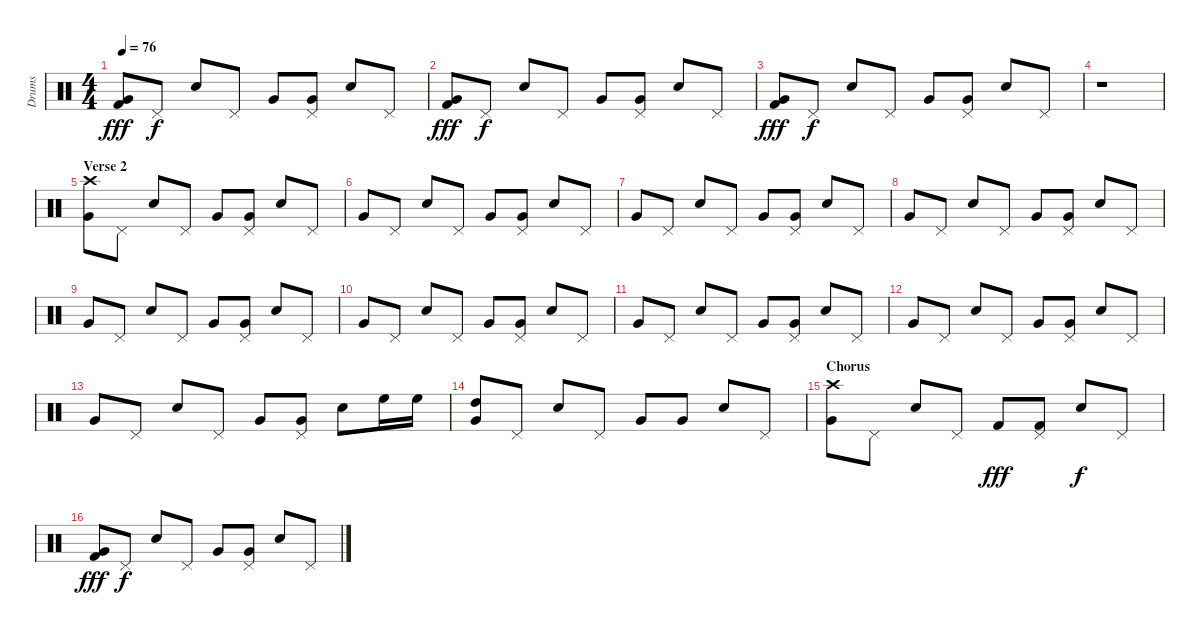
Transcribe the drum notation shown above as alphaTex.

\track ("Drums" "Drums") {instrument percussion}
\staff {score}
\articulation defaults
\ts (4 4)
\tempo 76
\clef neutral
\ks c
("Kick (hit) 2" "Very Low Tom (hit)").8{dy fff} "Pedal Hi-Hat (hit)".8{dy f} "Electric Snare (hit)".8 "Pedal Hi-Hat (hit)".8 "Very Low Tom (hit)".8 ("Very Low Tom (hit)" "Pedal Hi-Hat (hit)").8 "Electric Snare (hit)".8 "Pedal Hi-Hat (hit)".8 |
("Kick (hit) 2" "Very Low Tom (hit)").8{dy fff} "Pedal Hi-Hat (hit)".8{dy f} "Electric Snare (hit)".8 "Pedal Hi-Hat (hit)".8 "Very Low Tom (hit)".8 ("Very Low Tom (hit)" "Pedal Hi-Hat (hit)").8 "Electric Snare (hit)".8 "Pedal Hi-Hat (hit)".8 |
("Kick (hit) 2" "Very Low Tom (hit)").8{dy fff} "Pedal Hi-Hat (hit)".8{dy f} "Electric Snare (hit)".8 "Pedal Hi-Hat (hit)".8 "Very Low Tom (hit)".8 ("Very Low Tom (hit)" "Pedal Hi-Hat (hit)").8 "Electric Snare (hit)".8 "Pedal Hi-Hat (hit)".8 |
r.1 |
\section ("" "Verse 2")
("Crash high (hit)" "Very Low Tom (hit)").8 "Pedal Hi-Hat (hit)".8 "Electric Snare (hit)".8 "Pedal Hi-Hat (hit)".8 "Very Low Tom (hit)".8 ("Very Low Tom (hit)" "Pedal Hi-Hat (hit)").8 "Electric Snare (hit)".8 "Pedal Hi-Hat (hit)".8 |
"Very Low Tom (hit)".8 "Pedal Hi-Hat (hit)".8 "Electric Snare (hit)".8 "Pedal Hi-Hat (hit)".8 "Very Low Tom (hit)".8 ("Very Low Tom (hit)" "Pedal Hi-Hat (hit)").8 "Electric Snare (hit)".8 "Pedal Hi-Hat (hit)".8 |
"Very Low Tom (hit)".8 "Pedal Hi-Hat (hit)".8 "Electric Snare (hit)".8 "Pedal Hi-Hat (hit)".8 "Very Low Tom (hit)".8 ("Very Low Tom (hit)" "Pedal Hi-Hat (hit)").8 "Electric Snare (hit)".8 "Pedal Hi-Hat (hit)".8 |
"Very Low Tom (hit)".8 "Pedal Hi-Hat (hit)".8 "Electric Snare (hit)".8 "Pedal Hi-Hat (hit)".8 "Very Low Tom (hit)".8 ("Very Low Tom (hit)" "Pedal Hi-Hat (hit)").8 "Electric Snare (hit)".8 "Pedal Hi-Hat (hit)".8 |
"Very Low Tom (hit)".8 "Pedal Hi-Hat (hit)".8 "Electric Snare (hit)".8 "Pedal Hi-Hat (hit)".8 "Very Low Tom (hit)".8 ("Very Low Tom (hit)" "Pedal Hi-Hat (hit)").8 "Electric Snare (hit)".8 "Pedal Hi-Hat (hit)".8 |
"Very Low Tom (hit)".8 "Pedal Hi-Hat (hit)".8 "Electric Snare (hit)".8 "Pedal Hi-Hat (hit)".8 "Very Low Tom (hit)".8 ("Very Low Tom (hit)" "Pedal Hi-Hat (hit)").8 "Electric Snare (hit)".8 "Pedal Hi-Hat (hit)".8 |
"Very Low Tom (hit)".8 "Pedal Hi-Hat (hit)".8 "Electric Snare (hit)".8 "Pedal Hi-Hat (hit)".8 "Very Low Tom (hit)".8 ("Very Low Tom (hit)" "Pedal Hi-Hat (hit)").8 "Electric Snare (hit)".8 "Pedal Hi-Hat (hit)".8 |
"Very Low Tom (hit)".8 "Pedal Hi-Hat (hit)".8 "Electric Snare (hit)".8 "Pedal Hi-Hat (hit)".8 "Very Low Tom (hit)".8 ("Very Low Tom (hit)" "Pedal Hi-Hat (hit)").8 "Electric Snare (hit)".8 "Pedal Hi-Hat (hit)".8 |
"Very Low Tom (hit)".8 "Pedal Hi-Hat (hit)".8 "Electric Snare (hit)".8 "Pedal Hi-Hat (hit)".8 "Very Low Tom (hit)".8 ("Very Low Tom (hit)" "Pedal Hi-Hat (hit)").8 "Electric Snare (hit)".8 "High Floor Tom (hit)".16 "High Floor Tom (hit)".16 |
("High Tom (hit)" "Very Low Tom (hit)").8 "Pedal Hi-Hat (hit)".8 "Electric Snare (hit)".8 "Pedal Hi-Hat (hit)".8 "Very Low Tom (hit)".8 "Very Low Tom (hit)".8 "Electric Snare (hit)".8 "Pedal Hi-Hat (hit)".8 |
\section ("" "Chorus")
("Crash high (hit)" "Very Low Tom (hit)").8 "Pedal Hi-Hat (hit)".8 "Electric Snare (hit)".8 "Pedal Hi-Hat (hit)".8 "Kick (hit) 2".8{dy fff} ("Kick (hit) 2" "Pedal Hi-Hat (hit)").8 "Electric Snare (hit)".8{dy f} "Pedal Hi-Hat (hit)".8 |
("Kick (hit) 2" "Very Low Tom (hit)").8{dy fff} "Pedal Hi-Hat (hit)".8{dy f} "Electric Snare (hit)".8 "Pedal Hi-Hat (hit)".8 "Very Low Tom (hit)".8 ("Very Low Tom (hit)" "Pedal Hi-Hat (hit)").8 "Electric Snare (hit)".8 "Pedal Hi-Hat (hit)".8
